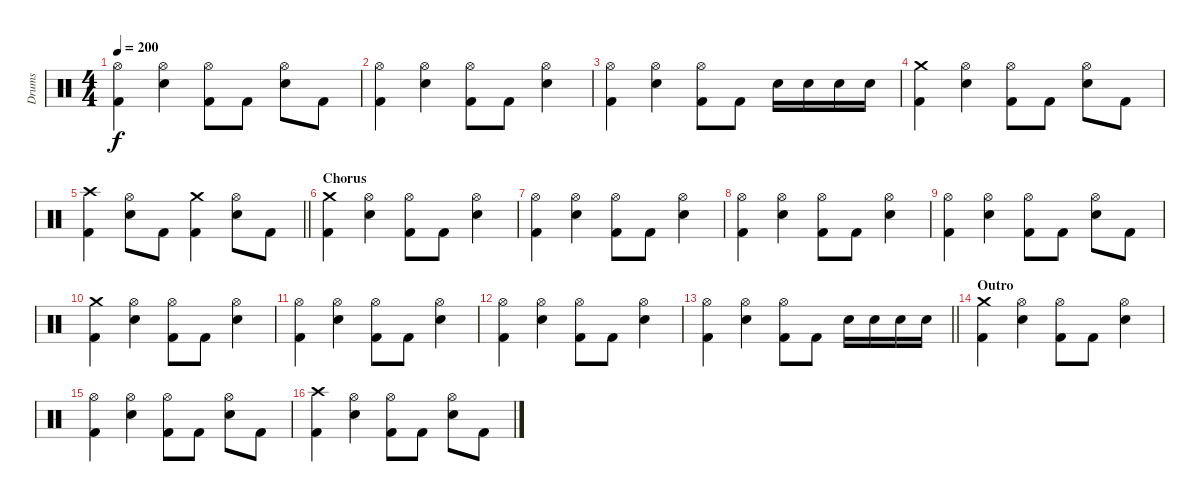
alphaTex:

\track ("Drums" "Drums") {instrument percussion}
\staff {score}
\articulation defaults
\ts (4 4)
\tempo 200
\clef neutral
\ks c
("Hi-Hat (open)" "Kick (hit) 2").4{dy f} ("Hi-Hat (open)" "Electric Snare (hit)").4 ("Hi-Hat (open)" "Kick (hit) 2").8 "Kick (hit) 2".8 ("Hi-Hat (open)" "Electric Snare (hit)").8 "Kick (hit) 2".8 |
("Hi-Hat (open)" "Kick (hit) 2").4 ("Hi-Hat (open)" "Electric Snare (hit)").4 ("Hi-Hat (open)" "Kick (hit) 2").8 "Kick (hit) 2".8 ("Hi-Hat (open)" "Electric Snare (hit)").4 |
("Hi-Hat (open)" "Kick (hit) 2").4 ("Hi-Hat (open)" "Electric Snare (hit)").4 ("Hi-Hat (open)" "Kick (hit) 2").8 "Kick (hit) 2".8 "Electric Snare (hit)".16 "Electric Snare (hit)".16 "Electric Snare (hit)".16 "Electric Snare (hit)".16 |
("Crash medium (hit)" "Kick (hit) 2").4 ("Hi-Hat (open)" "Electric Snare (hit)").4 ("Hi-Hat (open)" "Kick (hit) 2").8 "Kick (hit) 2".8 ("Hi-Hat (open)" "Electric Snare (hit)").8 "Kick (hit) 2".8 |
\barLineRight lightlight
("Crash high (hit)" "Kick (hit) 2").4 ("Hi-Hat (open)" "Electric Snare (hit)").8 "Kick (hit) 2".8 ("Crash medium (hit)" "Kick (hit) 2").4 ("Hi-Hat (open)" "Electric Snare (hit)").8 "Kick (hit) 2".8 |
\section ("" "Chorus")
("Crash medium (hit)" "Kick (hit) 2").4 ("Hi-Hat (open)" "Electric Snare (hit)").4 ("Hi-Hat (open)" "Kick (hit) 2").8 "Kick (hit) 2".8 ("Hi-Hat (open)" "Electric Snare (hit)").4 |
("Hi-Hat (open)" "Kick (hit) 2").4 ("Hi-Hat (open)" "Electric Snare (hit)").4 ("Hi-Hat (open)" "Kick (hit) 2").8 "Kick (hit) 2".8 ("Hi-Hat (open)" "Electric Snare (hit)").4 |
("Hi-Hat (open)" "Kick (hit) 2").4 ("Hi-Hat (open)" "Electric Snare (hit)").4 ("Hi-Hat (open)" "Kick (hit) 2").8 "Kick (hit) 2".8 ("Hi-Hat (open)" "Electric Snare (hit)").4 |
("Hi-Hat (open)" "Kick (hit) 2").4 ("Hi-Hat (open)" "Electric Snare (hit)").4 ("Hi-Hat (open)" "Kick (hit) 2").8 "Kick (hit) 2".8 ("Hi-Hat (open)" "Electric Snare (hit)").8 "Kick (hit) 2".8 |
("Crash medium (hit)" "Kick (hit) 2").4 ("Hi-Hat (open)" "Electric Snare (hit)").4 ("Hi-Hat (open)" "Kick (hit) 2").8 "Kick (hit) 2".8 ("Hi-Hat (open)" "Electric Snare (hit)").4 |
("Hi-Hat (open)" "Kick (hit) 2").4 ("Hi-Hat (open)" "Electric Snare (hit)").4 ("Hi-Hat (open)" "Kick (hit) 2").8 "Kick (hit) 2".8 ("Hi-Hat (open)" "Electric Snare (hit)").4 |
("Hi-Hat (open)" "Kick (hit) 2").4 ("Hi-Hat (open)" "Electric Snare (hit)").4 ("Hi-Hat (open)" "Kick (hit) 2").8 "Kick (hit) 2".8 ("Hi-Hat (open)" "Electric Snare (hit)").4 |
\barLineRight lightlight
("Hi-Hat (open)" "Kick (hit) 2").4 ("Hi-Hat (open)" "Electric Snare (hit)").4 ("Hi-Hat (open)" "Kick (hit) 2").8 "Kick (hit) 2".8 "Electric Snare (hit)".16 "Electric Snare (hit)".16 "Electric Snare (hit)".16 "Electric Snare (hit)".16 |
\section ("" "Outro")
("Crash medium (hit)" "Kick (hit) 2").4 ("Hi-Hat (open)" "Electric Snare (hit)").4 ("Hi-Hat (open)" "Kick (hit) 2").8 "Kick (hit) 2".8 ("Hi-Hat (open)" "Electric Snare (hit)").4 |
("Hi-Hat (open)" "Kick (hit) 2").4 ("Hi-Hat (open)" "Electric Snare (hit)").4 ("Hi-Hat (open)" "Kick (hit) 2").8 "Kick (hit) 2".8 ("Hi-Hat (open)" "Electric Snare (hit)").8 "Kick (hit) 2".8 |
("Crash high (hit)" "Kick (hit) 2").4 ("Hi-Hat (open)" "Electric Snare (hit)").4 ("Hi-Hat (open)" "Kick (hit) 2").8 "Kick (hit) 2".8 ("Hi-Hat (open)" "Electric Snare (hit)").8 "Kick (hit) 2".8
